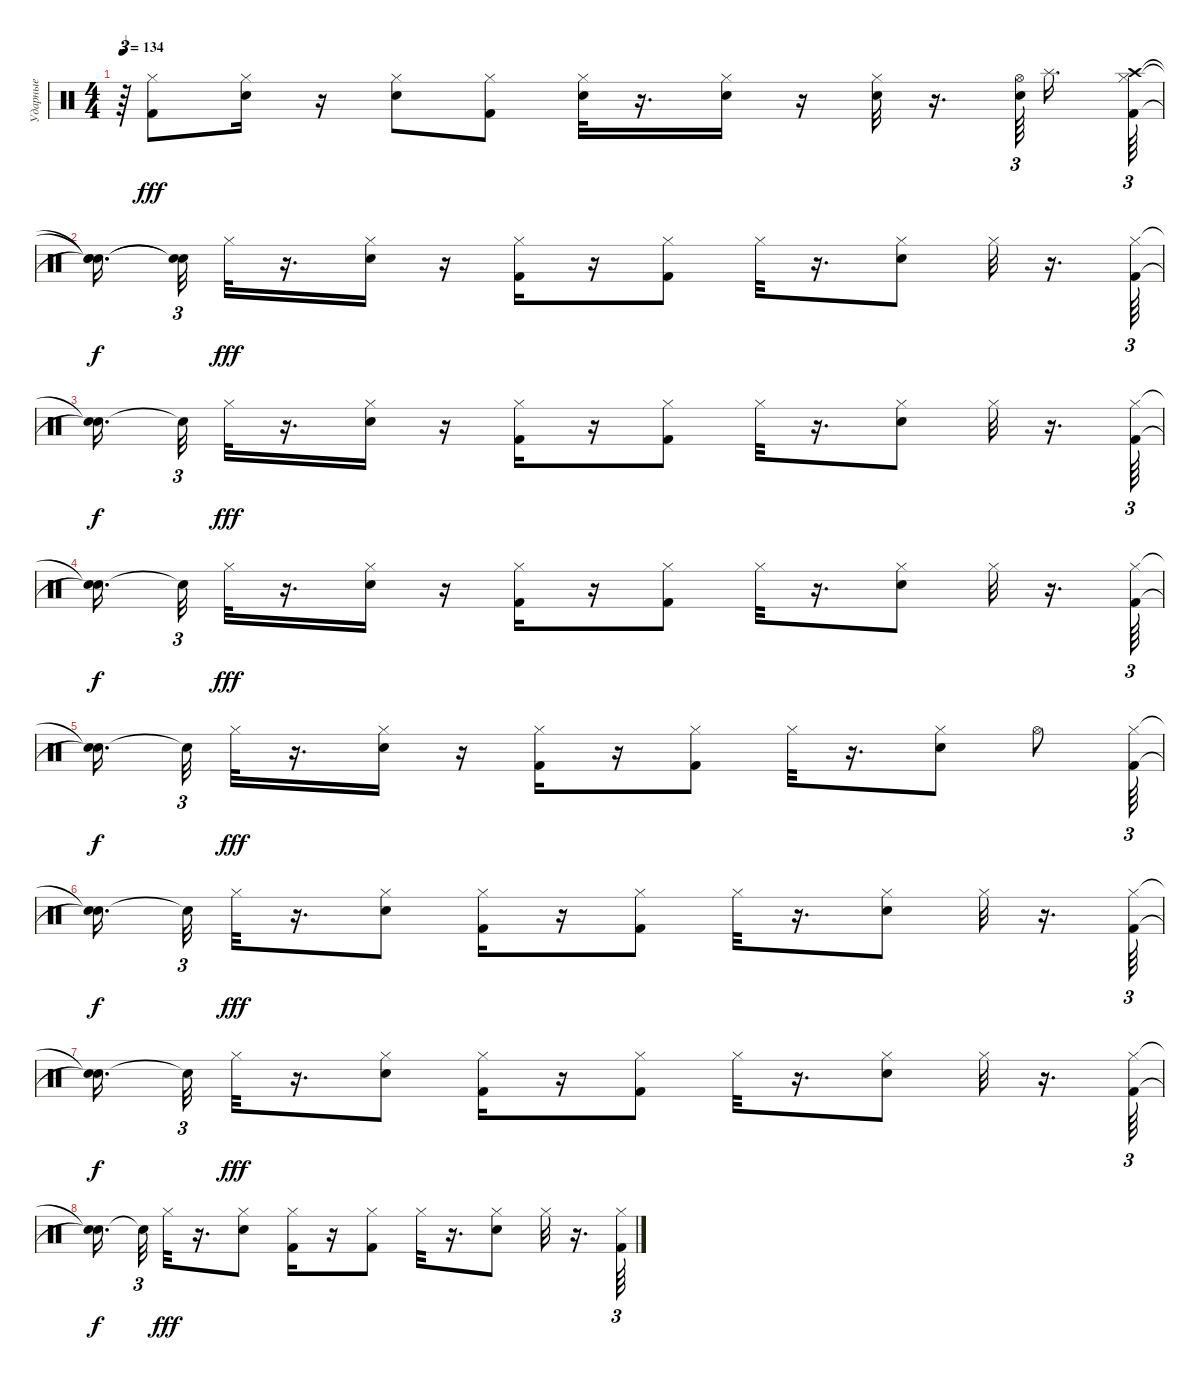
\track ("Ударные" "Ударные") {instrument percussion}
\staff {score}
\articulation defaults
\ts (4 4)
\tempo 134
\clef neutral
\ks c
r.64{tu (3 2) dy fff} ("Kick (hit) 2" "Hi-Hat (closed)").8 ("Electric Snare (hit)" "Hi-Hat (closed)").16 r.16 ("Electric Snare (hit)" "Hi-Hat (closed)").8 ("Kick (hit) 2" "Hi-Hat (closed)").8 ("Electric Snare (hit)" "Hi-Hat (closed)").32 r.16{d} ("Electric Snare (hit)" "Hi-Hat (closed)").16 r.16 ("Electric Snare (hit)" "Hi-Hat (closed)").32 r.16{d} ("Electric Snare (hit)" "Hi-Hat (open)").64{tu (3 2) beam splitsecondary} "Splash (hit)".16{d} ("Kick (hit) 2" "Crash high (hit)" "Hi-Hat (closed)").64{tu (3 2)} |
("Snare (hit)"{t} "Snare (hit)"{t} "Snare (hit)"{t}).16{d dy f beam splitsecondary} ("Snare (hit)"{t} "Snare (hit)"{t}).32{tu (3 2)} "Hi-Hat (closed)".32{dy fff} r.16{d} ("Electric Snare (hit)" "Hi-Hat (closed)").16 r.16 ("Kick (hit) 2" "Hi-Hat (closed)").16 r.16 ("Kick (hit) 2" "Hi-Hat (closed)").8 "Hi-Hat (closed)".32 r.16{d} ("Electric Snare (hit)" "Hi-Hat (closed)").8 "Hi-Hat (closed)".32 r.16{d} ("Kick (hit) 2" "Hi-Hat (closed)").64{tu (3 2)} |
("Snare (hit)"{t} "Snare (hit)"{t}).16{d dy f beam splitsecondary} "Snare (hit)"{t}.32{tu (3 2)} "Hi-Hat (closed)".32{dy fff} r.16{d} ("Electric Snare (hit)" "Hi-Hat (closed)").16 r.16 ("Kick (hit) 2" "Hi-Hat (closed)").16 r.16 ("Kick (hit) 2" "Hi-Hat (closed)").8 "Hi-Hat (closed)".32 r.16{d} ("Electric Snare (hit)" "Hi-Hat (closed)").8 "Hi-Hat (closed)".32 r.16{d} ("Kick (hit) 2" "Hi-Hat (closed)").64{tu (3 2)} |
("Snare (hit)"{t} "Snare (hit)"{t}).16{d dy f beam splitsecondary} "Snare (hit)"{t}.32{tu (3 2)} "Hi-Hat (closed)".32{dy fff} r.16{d} ("Electric Snare (hit)" "Hi-Hat (closed)").16 r.16 ("Kick (hit) 2" "Hi-Hat (closed)").16 r.16 ("Kick (hit) 2" "Hi-Hat (closed)").8 "Hi-Hat (closed)".32 r.16{d} ("Electric Snare (hit)" "Hi-Hat (closed)").8 "Hi-Hat (closed)".32 r.16{d} ("Kick (hit) 2" "Hi-Hat (closed)").64{tu (3 2)} |
("Snare (hit)"{t} "Snare (hit)"{t}).16{d dy f beam splitsecondary} "Snare (hit)"{t}.32{tu (3 2)} "Hi-Hat (closed)".32{dy fff} r.16{d} ("Electric Snare (hit)" "Hi-Hat (closed)").16 r.16 ("Kick (hit) 2" "Hi-Hat (closed)").16 r.16 ("Kick (hit) 2" "Hi-Hat (closed)").8 "Hi-Hat (closed)".32 r.16{d} ("Electric Snare (hit)" "Hi-Hat (closed)").8 "Hi-Hat (open)".8 ("Kick (hit) 2" "Hi-Hat (closed)").64{tu (3 2)} |
("Snare (hit)"{t} "Snare (hit)"{t}).16{d dy f beam splitsecondary} "Snare (hit)"{t}.32{tu (3 2)} "Hi-Hat (closed)".32{dy fff} r.16{d} ("Electric Snare (hit)" "Hi-Hat (closed)").8 ("Kick (hit) 2" "Hi-Hat (closed)").16 r.16 ("Kick (hit) 2" "Hi-Hat (closed)").8 "Hi-Hat (closed)".32 r.16{d} ("Electric Snare (hit)" "Hi-Hat (closed)").8 "Hi-Hat (closed)".32 r.16{d} ("Kick (hit) 2" "Hi-Hat (closed)").64{tu (3 2)} |
("Snare (hit)"{t} "Snare (hit)"{t}).16{d dy f beam splitsecondary} "Snare (hit)"{t}.32{tu (3 2)} "Hi-Hat (closed)".32{dy fff} r.16{d} ("Electric Snare (hit)" "Hi-Hat (closed)").8 ("Kick (hit) 2" "Hi-Hat (closed)").16 r.16 ("Kick (hit) 2" "Hi-Hat (closed)").8 "Hi-Hat (closed)".32 r.16{d} ("Electric Snare (hit)" "Hi-Hat (closed)").8 "Hi-Hat (closed)".32 r.16{d} ("Kick (hit) 2" "Hi-Hat (closed)").64{tu (3 2)} |
("Snare (hit)"{t} "Snare (hit)"{t}).16{d dy f beam splitsecondary} "Snare (hit)"{t}.32{tu (3 2)} "Hi-Hat (closed)".32{dy fff} r.16{d} ("Electric Snare (hit)" "Hi-Hat (closed)").8 ("Kick (hit) 2" "Hi-Hat (closed)").16 r.16 ("Kick (hit) 2" "Hi-Hat (closed)").8 "Hi-Hat (closed)".32 r.16{d} ("Electric Snare (hit)" "Hi-Hat (closed)").8 "Hi-Hat (closed)".32 r.16{d} ("Kick (hit) 2" "Hi-Hat (closed)").64{tu (3 2)}
